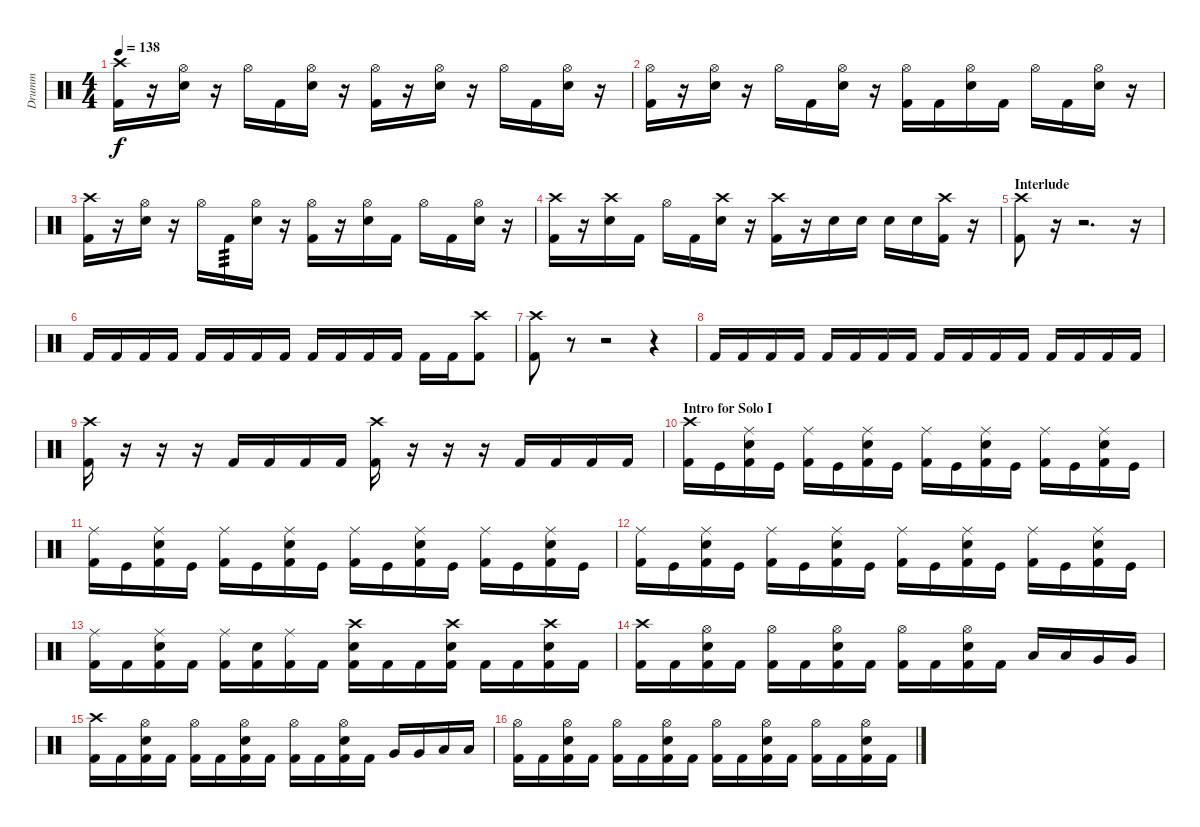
\track ("Drumm" "Drumm") {instrument percussion}
\staff {score}
\articulation defaults
\ts (4 4)
\tempo 138
\clef neutral
\ks c
("Crash high (hit)" "Kick (hit) 2").16{dy f} r.16 ("Hi-Hat (open)" "Snare (hit) 2").16 r.16 "Hi-Hat (open)".16 "Kick (hit) 2".16 ("Hi-Hat (open)" "Snare (hit) 2").16 r.16 ("Hi-Hat (open)" "Kick (hit) 2").16 r.16 ("Hi-Hat (open)" "Snare (hit) 2").16 r.16 "Hi-Hat (open)".16 "Kick (hit) 2".16 ("Hi-Hat (open)" "Snare (hit) 2").16 r.16 |
("Hi-Hat (open)" "Kick (hit) 2").16 r.16 ("Hi-Hat (open)" "Snare (hit) 2").16 r.16 "Hi-Hat (open)".16 "Kick (hit) 2".16 ("Hi-Hat (open)" "Snare (hit) 2").16 r.16 ("Hi-Hat (open)" "Kick (hit) 2").16 "Kick (hit) 2".16 ("Hi-Hat (open)" "Snare (hit) 2").16 "Kick (hit) 2".16 "Hi-Hat (open)".16 "Kick (hit) 2".16 ("Hi-Hat (open)" "Snare (hit) 2").16 r.16 |
("Crash high (hit)" "Kick (hit) 2").16 r.16 ("Hi-Hat (open)" "Snare (hit) 2").16 r.16 "Hi-Hat (open)".16 "Kick (hit) 2".16{tp 3} ("Hi-Hat (open)" "Snare (hit) 2").16 r.16 ("Hi-Hat (open)" "Kick (hit) 2").16 r.16 ("Hi-Hat (open)" "Snare (hit) 2").16 "Kick (hit) 2".16 "Hi-Hat (open)".16 "Kick (hit) 2".16 ("Hi-Hat (open)" "Snare (hit) 2").16 r.16 |
("Crash high (hit)" "Kick (hit) 2").16 r.16 ("Crash high (hit)" "Snare (hit) 2").16 "Kick (hit) 2".16 "Hi-Hat (open)".16 "Kick (hit) 2".16 ("Crash high (hit)" "Snare (hit) 2").16 r.16 ("Crash high (hit)" "Kick (hit) 2").16 r.16 "Snare (hit) 2".16 "Snare (hit) 2".16 "Snare (hit) 2".16 "Snare (hit) 2".16 ("Crash high (hit)" "Kick (hit) 2").16 r.16 |
\section ("" "Interlude")
("Crash high (hit)" "Kick (hit) 2").8 r.16 r.2{d} r.16 |
"Kick (hit) 2".16 "Kick (hit) 2".16 "Kick (hit) 2".16 "Kick (hit) 2".16 "Kick (hit) 2".16 "Kick (hit) 2".16 "Kick (hit) 2".16 "Kick (hit) 2".16 "Kick (hit) 2".16 "Kick (hit) 2".16 "Kick (hit) 2".16 "Kick (hit) 2".16 "Kick (hit) 2".16 "Kick (hit) 2".16 ("Crash high (hit)" "Kick (hit) 2").8 |
("Crash high (hit)" "Kick (hit) 2").8 r.8 r.2 r.4 |
"Kick (hit) 2".16 "Kick (hit) 2".16 "Kick (hit) 2".16 "Kick (hit) 2".16 "Kick (hit) 2".16 "Kick (hit) 2".16 "Kick (hit) 2".16 "Kick (hit) 2".16 "Kick (hit) 2".16 "Kick (hit) 2".16 "Kick (hit) 2".16 "Kick (hit) 2".16 "Kick (hit) 2".16 "Kick (hit) 2".16 "Kick (hit) 2".16 "Kick (hit) 2".16 |
("Crash high (hit)" "Kick (hit) 2").16 r.16 r.16 r.16 "Kick (hit) 2".16 "Kick (hit) 2".16 "Kick (hit) 2".16 "Kick (hit) 2".16 ("Crash high (hit)" "Kick (hit) 2").16 r.16 r.16 r.16 "Kick (hit) 2".16 "Kick (hit) 2".16 "Kick (hit) 2".16 "Kick (hit) 2".16 |
\section ("" "Intro for Solo I ")
("Crash high (hit)" "Kick (hit) 2").16 "Kick (hit)".16 ("Ride (middle)" "Snare (hit) 2" "Kick (hit) 2").16 "Kick (hit)".16 ("Ride (middle)" "Kick (hit) 2").16 "Kick (hit)".16 ("Ride (middle)" "Snare (hit) 2" "Kick (hit) 2").16 "Kick (hit)".16 ("Ride (middle)" "Kick (hit) 2").16 "Kick (hit)".16 ("Ride (middle)" "Snare (hit) 2" "Kick (hit) 2").16 "Kick (hit)".16 ("Ride (middle)" "Kick (hit) 2").16 "Kick (hit)".16 ("Ride (middle)" "Snare (hit) 2" "Kick (hit) 2").16 "Kick (hit)".16 |
("Ride (middle)" "Kick (hit) 2").16 "Kick (hit)".16 ("Ride (middle)" "Snare (hit) 2" "Kick (hit) 2").16 "Kick (hit)".16 ("Ride (middle)" "Kick (hit) 2").16 "Kick (hit)".16 ("Ride (middle)" "Snare (hit) 2" "Kick (hit) 2").16 "Kick (hit)".16 ("Ride (middle)" "Kick (hit) 2").16 "Kick (hit)".16 ("Ride (middle)" "Snare (hit) 2" "Kick (hit) 2").16 "Kick (hit)".16 ("Ride (middle)" "Kick (hit) 2").16 "Kick (hit)".16 ("Ride (middle)" "Snare (hit) 2" "Kick (hit) 2").16 "Kick (hit)".16 |
("Ride (middle)" "Kick (hit) 2").16 "Kick (hit)".16 ("Ride (middle)" "Snare (hit) 2" "Kick (hit) 2").16 "Kick (hit)".16 ("Ride (middle)" "Kick (hit) 2").16 "Kick (hit)".16 ("Ride (middle)" "Snare (hit) 2" "Kick (hit) 2").16 "Kick (hit)".16 ("Ride (middle)" "Kick (hit) 2").16 "Kick (hit)".16 ("Ride (middle)" "Snare (hit) 2" "Kick (hit) 2").16 "Kick (hit)".16 ("Ride (middle)" "Kick (hit) 2").16 "Kick (hit)".16 ("Ride (middle)" "Snare (hit) 2" "Kick (hit) 2").16 "Kick (hit)".16 |
("Ride (middle)" "Kick (hit) 2").16 "Kick (hit) 2".16 ("Ride (middle)" "Snare (hit) 2" "Kick (hit) 2").16 "Kick (hit) 2".16 ("Ride (middle)" "Kick (hit) 2").16 ("Snare (hit) 2" "Kick (hit) 2").16 ("Ride (middle)" "Kick (hit) 2").16 "Kick (hit) 2".16 ("Crash high (hit)" "Snare (hit) 2" "Kick (hit) 2").16 "Kick (hit) 2".16 "Kick (hit) 2".16 ("Crash high (hit)" "Snare (hit) 2" "Kick (hit) 2").16 "Kick (hit) 2".16 "Kick (hit) 2".16 ("Crash high (hit)" "Snare (hit) 2" "Kick (hit) 2").16 "Kick (hit) 2".16 |
("Crash high (hit)" "Kick (hit) 2").16 "Kick (hit) 2".16 ("Hi-Hat (open)" "Snare (hit) 2" "Kick (hit) 2").16 "Kick (hit) 2".16 ("Hi-Hat (open)" "Kick (hit) 2").16 "Kick (hit) 2".16 ("Hi-Hat (open)" "Snare (hit) 2" "Kick (hit) 2").16 "Kick (hit) 2".16 ("Hi-Hat (open)" "Kick (hit) 2").16 "Kick (hit) 2".16 ("Hi-Hat (open)" "Snare (hit) 2" "Kick (hit) 2").16 "Kick (hit) 2".16 "Low Tom (hit)".16 "Low Tom (hit)".16 "Very Low Tom (hit)".16 "Very Low Tom (hit)".16 |
("Crash high (hit)" "Kick (hit) 2").16 "Kick (hit) 2".16 ("Hi-Hat (open)" "Snare (hit) 2" "Kick (hit) 2").16 "Kick (hit) 2".16 ("Hi-Hat (open)" "Kick (hit) 2").16 "Kick (hit) 2".16 ("Hi-Hat (open)" "Snare (hit) 2" "Kick (hit) 2").16 "Kick (hit) 2".16 ("Hi-Hat (open)" "Kick (hit) 2").16 "Kick (hit) 2".16 ("Hi-Hat (open)" "Snare (hit) 2" "Kick (hit) 2").16 "Kick (hit) 2".16 "Very Low Tom (hit)".16 "Very Low Tom (hit)".16 "Low Floor Tom (hit)".16 "Low Floor Tom (hit)".16 |
("Hi-Hat (open)" "Kick (hit) 2").16 "Kick (hit) 2".16 ("Hi-Hat (open)" "Snare (hit) 2" "Kick (hit) 2").16 "Kick (hit) 2".16 ("Hi-Hat (open)" "Kick (hit) 2").16 "Kick (hit) 2".16 ("Hi-Hat (open)" "Snare (hit) 2" "Kick (hit) 2").16 "Kick (hit) 2".16 ("Hi-Hat (open)" "Kick (hit) 2").16 "Kick (hit) 2".16 ("Hi-Hat (open)" "Snare (hit) 2" "Kick (hit) 2").16 "Kick (hit) 2".16 ("Hi-Hat (open)" "Kick (hit) 2").16 "Kick (hit) 2".16 ("Hi-Hat (open)" "Snare (hit) 2" "Kick (hit) 2").16 "Kick (hit) 2".16
